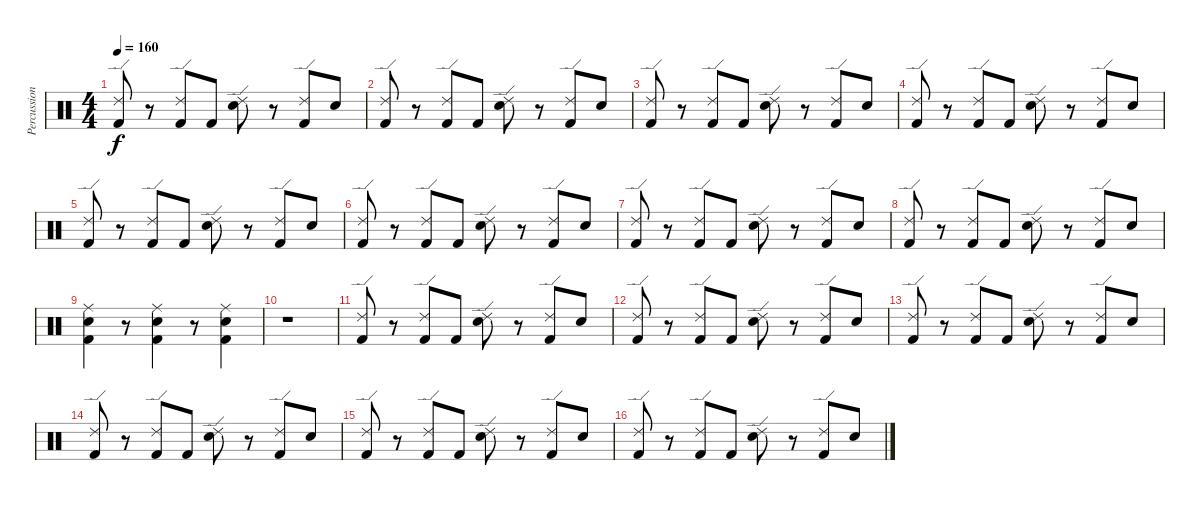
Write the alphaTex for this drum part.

\track ("Percussion" "Percussion") {instrument percussion}
\staff {score}
\articulation defaults
\ts (4 4)
\tempo 160
\clef neutral
\ks c
("Ride (edge) 2" "Kick (hit) 2").8{dy f} r.8 ("Ride (edge) 2" "Kick (hit) 2").8 "Kick (hit) 2".8 ("Ride (edge) 2" "Snare (hit) 2").8 r.8 ("Ride (edge) 2" "Kick (hit) 2").8 "Snare (hit) 2".8 |
("Ride (edge) 2" "Kick (hit) 2").8 r.8 ("Ride (edge) 2" "Kick (hit) 2").8 "Kick (hit) 2".8 ("Ride (edge) 2" "Snare (hit) 2").8 r.8 ("Ride (edge) 2" "Kick (hit) 2").8 "Snare (hit) 2".8 |
("Ride (edge) 2" "Kick (hit) 2").8 r.8 ("Ride (edge) 2" "Kick (hit) 2").8 "Kick (hit) 2".8 ("Ride (edge) 2" "Snare (hit) 2").8 r.8 ("Ride (edge) 2" "Kick (hit) 2").8 "Snare (hit) 2".8 |
("Ride (edge) 2" "Kick (hit) 2").8 r.8 ("Ride (edge) 2" "Kick (hit) 2").8 "Kick (hit) 2".8 ("Ride (edge) 2" "Snare (hit) 2").8 r.8 ("Ride (edge) 2" "Kick (hit) 2").8 "Snare (hit) 2".8 |
("Ride (edge) 2" "Kick (hit) 2").8 r.8 ("Ride (edge) 2" "Kick (hit) 2").8 "Kick (hit) 2".8 ("Ride (edge) 2" "Snare (hit) 2").8 r.8 ("Ride (edge) 2" "Kick (hit) 2").8 "Snare (hit) 2".8 |
("Ride (edge) 2" "Kick (hit) 2").8 r.8 ("Ride (edge) 2" "Kick (hit) 2").8 "Kick (hit) 2".8 ("Ride (edge) 2" "Snare (hit) 2").8 r.8 ("Ride (edge) 2" "Kick (hit) 2").8 "Snare (hit) 2".8 |
("Ride (edge) 2" "Kick (hit) 2").8 r.8 ("Ride (edge) 2" "Kick (hit) 2").8 "Kick (hit) 2".8 ("Ride (edge) 2" "Snare (hit) 2").8 r.8 ("Ride (edge) 2" "Kick (hit) 2").8 "Snare (hit) 2".8 |
("Ride (edge) 2" "Kick (hit) 2").8 r.8 ("Ride (edge) 2" "Kick (hit) 2").8 "Kick (hit) 2".8 ("Ride (edge) 2" "Snare (hit) 2").8 r.8 ("Ride (edge) 2" "Kick (hit) 2").8 "Snare (hit) 2".8 |
("Ride (middle)" "Snare (hit) 2" "Kick (hit) 2").4 r.8 ("Ride (middle)" "Snare (hit) 2" "Kick (hit) 2").4 r.8 ("Ride (middle)" "Snare (hit) 2" "Kick (hit) 2").4 |
r.1 |
("Ride (edge) 2" "Kick (hit) 2").8 r.8 ("Ride (edge) 2" "Kick (hit) 2").8 "Kick (hit) 2".8 ("Ride (edge) 2" "Snare (hit) 2").8 r.8 ("Ride (edge) 2" "Kick (hit) 2").8 "Snare (hit) 2".8 |
("Ride (edge) 2" "Kick (hit) 2").8 r.8 ("Ride (edge) 2" "Kick (hit) 2").8 "Kick (hit) 2".8 ("Ride (edge) 2" "Snare (hit) 2").8 r.8 ("Ride (edge) 2" "Kick (hit) 2").8 "Snare (hit) 2".8 |
("Ride (edge) 2" "Kick (hit) 2").8 r.8 ("Ride (edge) 2" "Kick (hit) 2").8 "Kick (hit) 2".8 ("Ride (edge) 2" "Snare (hit) 2").8 r.8 ("Ride (edge) 2" "Kick (hit) 2").8 "Snare (hit) 2".8 |
("Ride (edge) 2" "Kick (hit) 2").8 r.8 ("Ride (edge) 2" "Kick (hit) 2").8 "Kick (hit) 2".8 ("Ride (edge) 2" "Snare (hit) 2").8 r.8 ("Ride (edge) 2" "Kick (hit) 2").8 "Snare (hit) 2".8 |
("Ride (edge) 2" "Kick (hit) 2").8 r.8 ("Ride (edge) 2" "Kick (hit) 2").8 "Kick (hit) 2".8 ("Ride (edge) 2" "Snare (hit) 2").8 r.8 ("Ride (edge) 2" "Kick (hit) 2").8 "Snare (hit) 2".8 |
("Ride (edge) 2" "Kick (hit) 2").8 r.8 ("Ride (edge) 2" "Kick (hit) 2").8 "Kick (hit) 2".8 ("Ride (edge) 2" "Snare (hit) 2").8 r.8 ("Ride (edge) 2" "Kick (hit) 2").8 "Snare (hit) 2".8
